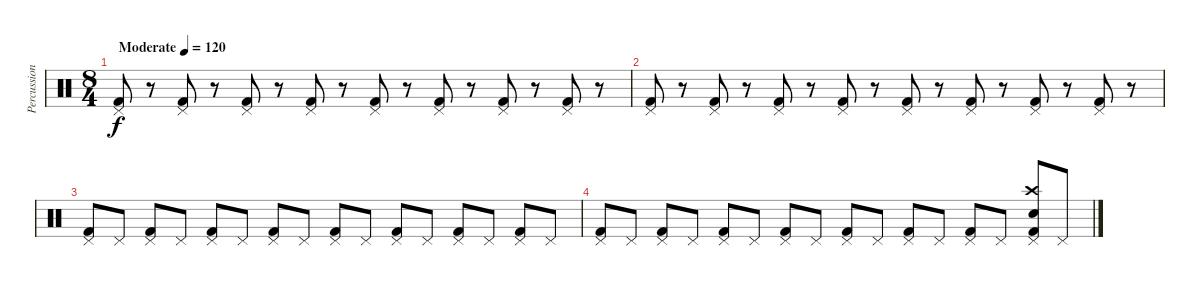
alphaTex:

\track ("Percussion" "Percussion") {instrument percussion}
\staff {score}
\articulation defaults
\ts (8 4)
\tempo (120 "Moderate")
\clef neutral
\ks c
("Pedal Hi-Hat (hit)" "Kick (hit) 2").8{dy f} r.8 ("Pedal Hi-Hat (hit)" "Kick (hit) 2").8 r.8 ("Pedal Hi-Hat (hit)" "Kick (hit) 2").8 r.8 ("Pedal Hi-Hat (hit)" "Kick (hit) 2").8 r.8 ("Pedal Hi-Hat (hit)" "Kick (hit) 2").8 r.8 ("Pedal Hi-Hat (hit)" "Kick (hit) 2").8 r.8 ("Pedal Hi-Hat (hit)" "Kick (hit) 2").8 r.8 ("Pedal Hi-Hat (hit)" "Kick (hit) 2").8 r.8 |
("Pedal Hi-Hat (hit)" "Kick (hit) 2").8 r.8 ("Pedal Hi-Hat (hit)" "Kick (hit) 2").8 r.8 ("Pedal Hi-Hat (hit)" "Kick (hit) 2").8 r.8 ("Pedal Hi-Hat (hit)" "Kick (hit) 2").8 r.8 ("Pedal Hi-Hat (hit)" "Kick (hit) 2").8 r.8 ("Pedal Hi-Hat (hit)" "Kick (hit) 2").8 r.8 ("Pedal Hi-Hat (hit)" "Kick (hit) 2").8 r.8 ("Pedal Hi-Hat (hit)" "Kick (hit) 2").8 r.8 |
("Pedal Hi-Hat (hit)" "Kick (hit) 2").8 "Pedal Hi-Hat (hit)".8 ("Pedal Hi-Hat (hit)" "Kick (hit) 2").8 "Pedal Hi-Hat (hit)".8 ("Pedal Hi-Hat (hit)" "Kick (hit) 2").8 "Pedal Hi-Hat (hit)".8 ("Pedal Hi-Hat (hit)" "Kick (hit) 2").8 "Pedal Hi-Hat (hit)".8 ("Pedal Hi-Hat (hit)" "Kick (hit) 2").8 "Pedal Hi-Hat (hit)".8 ("Pedal Hi-Hat (hit)" "Kick (hit) 2").8 "Pedal Hi-Hat (hit)".8 ("Pedal Hi-Hat (hit)" "Kick (hit) 2").8 "Pedal Hi-Hat (hit)".8 ("Pedal Hi-Hat (hit)" "Kick (hit) 2").8 "Pedal Hi-Hat (hit)".8 |
("Pedal Hi-Hat (hit)" "Kick (hit) 2").8 "Pedal Hi-Hat (hit)".8 ("Pedal Hi-Hat (hit)" "Kick (hit) 2").8 "Pedal Hi-Hat (hit)".8 ("Pedal Hi-Hat (hit)" "Kick (hit) 2").8 "Pedal Hi-Hat (hit)".8 ("Pedal Hi-Hat (hit)" "Kick (hit) 2").8 "Pedal Hi-Hat (hit)".8 ("Pedal Hi-Hat (hit)" "Kick (hit) 2").8 "Pedal Hi-Hat (hit)".8 ("Pedal Hi-Hat (hit)" "Kick (hit) 2").8 "Pedal Hi-Hat (hit)".8 ("Pedal Hi-Hat (hit)" "Kick (hit) 2").8 "Pedal Hi-Hat (hit)".8 ("Crash high (hit)" "Snare (hit) 2" "Pedal Hi-Hat (hit)" "Kick (hit) 2").8 "Pedal Hi-Hat (hit)".8
